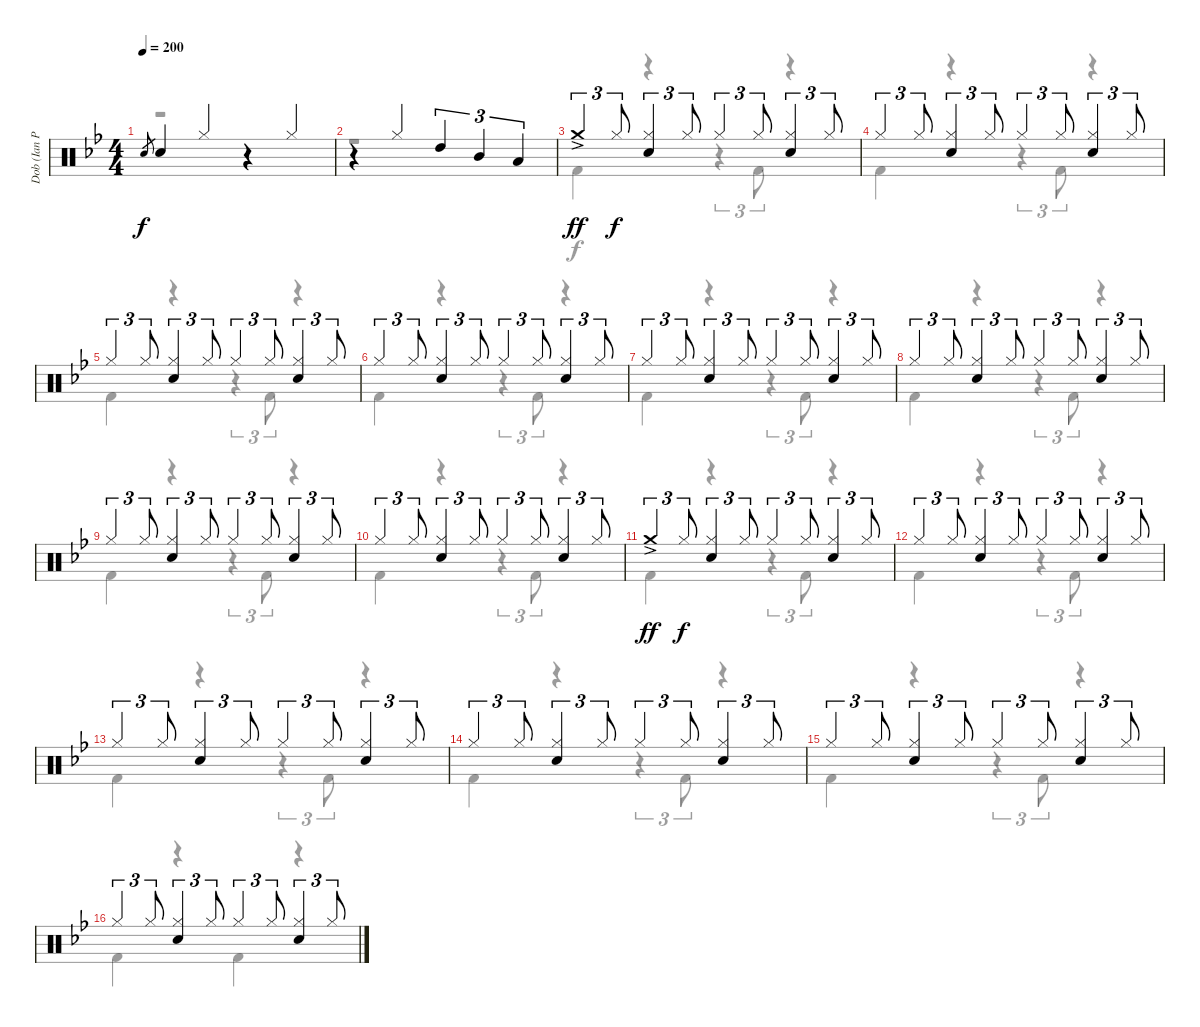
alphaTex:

\track ("Dob (Ian Paice)" "Dob (Ian P") {instrument percussion}
\staff {score}
\articulation defaults
\voice
\ts (4 4)
\tempo 200
\clef neutral
\ks bb "Electric Snare (hit)".8{gr dy f} "Electric Snare (hit)".4 "Hi-Hat (closed)".4
r.4 "Hi-Hat (closed)".4 |
r.4 "Hi-Hat (closed)".4 "High Tom (hit)".4{tu (3 2)} "Mid Tom (hit)".4{tu (3 2)} "Low Tom (hit)".4{tu (3 2)} |
"Crash medium (hit)"{ac}.4{tu (3 2) dy ff} "Hi-Hat (closed)".8{tu (3 2) dy f} ("Hi-Hat (closed)" "Electric Snare (hit)").4{tu (3 2)} "Hi-Hat (closed)".8{tu (3 2)} "Hi-Hat (closed)".4{tu (3 2)} "Hi-Hat (closed)".8{tu (3 2)} ("Hi-Hat (closed)" "Electric Snare (hit)").4{tu (3 2)} "Hi-Hat (closed)".8{tu (3 2)} |
"Hi-Hat (closed)".4{tu (3 2)} "Hi-Hat (closed)".8{tu (3 2)} ("Hi-Hat (closed)" "Electric Snare (hit)").4{tu (3 2)} "Hi-Hat (closed)".8{tu (3 2)} "Hi-Hat (closed)".4{tu (3 2)} "Hi-Hat (closed)".8{tu (3 2)} ("Hi-Hat (closed)" "Electric Snare (hit)").4{tu (3 2)} "Hi-Hat (closed)".8{tu (3 2)} |
"Hi-Hat (closed)".4{tu (3 2)} "Hi-Hat (closed)".8{tu (3 2)} ("Hi-Hat (closed)" "Electric Snare (hit)").4{tu (3 2)} "Hi-Hat (closed)".8{tu (3 2)} "Hi-Hat (closed)".4{tu (3 2)} "Hi-Hat (closed)".8{tu (3 2)} ("Hi-Hat (closed)" "Electric Snare (hit)").4{tu (3 2)} "Hi-Hat (closed)".8{tu (3 2)} |
"Hi-Hat (closed)".4{tu (3 2)} "Hi-Hat (closed)".8{tu (3 2)} ("Hi-Hat (closed)" "Electric Snare (hit)").4{tu (3 2)} "Hi-Hat (closed)".8{tu (3 2)} "Hi-Hat (closed)".4{tu (3 2)} "Hi-Hat (closed)".8{tu (3 2)} ("Hi-Hat (closed)" "Electric Snare (hit)").4{tu (3 2)} "Hi-Hat (closed)".8{tu (3 2)} |
"Hi-Hat (closed)".4{tu (3 2)} "Hi-Hat (closed)".8{tu (3 2)} ("Hi-Hat (closed)" "Electric Snare (hit)").4{tu (3 2)} "Hi-Hat (closed)".8{tu (3 2)} "Hi-Hat (closed)".4{tu (3 2)} "Hi-Hat (closed)".8{tu (3 2)} ("Hi-Hat (closed)" "Electric Snare (hit)").4{tu (3 2)} "Hi-Hat (closed)".8{tu (3 2)} |
"Hi-Hat (closed)".4{tu (3 2)} "Hi-Hat (closed)".8{tu (3 2)} ("Hi-Hat (closed)" "Electric Snare (hit)").4{tu (3 2)} "Hi-Hat (closed)".8{tu (3 2)} "Hi-Hat (closed)".4{tu (3 2)} "Hi-Hat (closed)".8{tu (3 2)} ("Hi-Hat (closed)" "Electric Snare (hit)").4{tu (3 2)} "Hi-Hat (closed)".8{tu (3 2)} |
"Hi-Hat (closed)".4{tu (3 2)} "Hi-Hat (closed)".8{tu (3 2)} ("Hi-Hat (closed)" "Electric Snare (hit)").4{tu (3 2)} "Hi-Hat (closed)".8{tu (3 2)} "Hi-Hat (closed)".4{tu (3 2)} "Hi-Hat (closed)".8{tu (3 2)} ("Hi-Hat (closed)" "Electric Snare (hit)").4{tu (3 2)} "Hi-Hat (closed)".8{tu (3 2)} |
"Hi-Hat (closed)".4{tu (3 2)} "Hi-Hat (closed)".8{tu (3 2)} ("Hi-Hat (closed)" "Electric Snare (hit)").4{tu (3 2)} "Hi-Hat (closed)".8{tu (3 2)} "Hi-Hat (closed)".4{tu (3 2)} "Hi-Hat (closed)".8{tu (3 2)} ("Hi-Hat (closed)" "Electric Snare (hit)").4{tu (3 2)} "Hi-Hat (closed)".8{tu (3 2)} |
"Crash medium (hit)"{ac}.4{tu (3 2) dy ff} "Hi-Hat (closed)".8{tu (3 2) dy f} ("Hi-Hat (closed)" "Electric Snare (hit)").4{tu (3 2)} "Hi-Hat (closed)".8{tu (3 2)} "Hi-Hat (closed)".4{tu (3 2)} "Hi-Hat (closed)".8{tu (3 2)} ("Hi-Hat (closed)" "Electric Snare (hit)").4{tu (3 2)} "Hi-Hat (closed)".8{tu (3 2)} |
"Hi-Hat (closed)".4{tu (3 2)} "Hi-Hat (closed)".8{tu (3 2)} ("Hi-Hat (closed)" "Electric Snare (hit)").4{tu (3 2)} "Hi-Hat (closed)".8{tu (3 2)} "Hi-Hat (closed)".4{tu (3 2)} "Hi-Hat (closed)".8{tu (3 2)} ("Hi-Hat (closed)" "Electric Snare (hit)").4{tu (3 2)} "Hi-Hat (closed)".8{tu (3 2)} |
"Hi-Hat (closed)".4{tu (3 2)} "Hi-Hat (closed)".8{tu (3 2)} ("Hi-Hat (closed)" "Electric Snare (hit)").4{tu (3 2)} "Hi-Hat (closed)".8{tu (3 2)} "Hi-Hat (closed)".4{tu (3 2)} "Hi-Hat (closed)".8{tu (3 2)} ("Hi-Hat (closed)" "Electric Snare (hit)").4{tu (3 2)} "Hi-Hat (closed)".8{tu (3 2)} |
"Hi-Hat (closed)".4{tu (3 2)} "Hi-Hat (closed)".8{tu (3 2)} ("Hi-Hat (closed)" "Electric Snare (hit)").4{tu (3 2)} "Hi-Hat (closed)".8{tu (3 2)} "Hi-Hat (closed)".4{tu (3 2)} "Hi-Hat (closed)".8{tu (3 2)} ("Hi-Hat (closed)" "Electric Snare (hit)").4{tu (3 2)} "Hi-Hat (closed)".8{tu (3 2)} |
"Hi-Hat (closed)".4{tu (3 2)} "Hi-Hat (closed)".8{tu (3 2)} ("Hi-Hat (closed)" "Electric Snare (hit)").4{tu (3 2)} "Hi-Hat (closed)".8{tu (3 2)} "Hi-Hat (closed)".4{tu (3 2)} "Hi-Hat (closed)".8{tu (3 2)} ("Hi-Hat (closed)" "Electric Snare (hit)").4{tu (3 2)} "Hi-Hat (closed)".8{tu (3 2)} |
"Hi-Hat (closed)".4{tu (3 2)} "Hi-Hat (closed)".8{tu (3 2)} ("Hi-Hat (closed)" "Electric Snare (hit)").4{tu (3 2)} "Hi-Hat (closed)".8{tu (3 2)} "Hi-Hat (closed)".4{tu (3 2)} "Hi-Hat (closed)".8{tu (3 2)} ("Hi-Hat (closed)" "Electric Snare (hit)").4{tu (3 2)} "Hi-Hat (closed)".8{tu (3 2)}
\voice
\clef neutral
\ottava regular
\simile none
\ks bb
r.1{dy f} |
r.1 |
"Kick (hit) 2".4 r.4 r.4{tu (3 2)} "Kick (hit) 2".8{tu (3 2)} r.4 |
"Kick (hit) 2".4 r.4 r.4{tu (3 2)} "Kick (hit) 2".8{tu (3 2)} r.4 |
"Kick (hit) 2".4 r.4 r.4{tu (3 2)} "Kick (hit) 2".8{tu (3 2)} r.4 |
"Kick (hit) 2".4 r.4 r.4{tu (3 2)} "Kick (hit) 2".8{tu (3 2)} r.4 |
"Kick (hit) 2".4 r.4 r.4{tu (3 2)} "Kick (hit) 2".8{tu (3 2)} r.4 |
"Kick (hit) 2".4 r.4 r.4{tu (3 2)} "Kick (hit) 2".8{tu (3 2)} r.4 |
"Kick (hit) 2".4 r.4 r.4{tu (3 2)} "Kick (hit) 2".8{tu (3 2)} r.4 |
"Kick (hit) 2".4 r.4 r.4{tu (3 2)} "Kick (hit) 2".8{tu (3 2)} r.4 |
"Kick (hit) 2".4 r.4 r.4{tu (3 2)} "Kick (hit) 2".8{tu (3 2)} r.4 |
"Kick (hit) 2".4 r.4 r.4{tu (3 2)} "Kick (hit) 2".8{tu (3 2)} r.4 |
"Kick (hit) 2".4 r.4 r.4{tu (3 2)} "Kick (hit) 2".8{tu (3 2)} r.4 |
"Kick (hit) 2".4 r.4 r.4{tu (3 2)} "Kick (hit) 2".8{tu (3 2)} r.4 |
"Kick (hit) 2".4 r.4 r.4{tu (3 2)} "Kick (hit) 2".8{tu (3 2)} r.4 |
"Kick (hit) 2".4 r.4 "Kick (hit) 2".4 r.4
